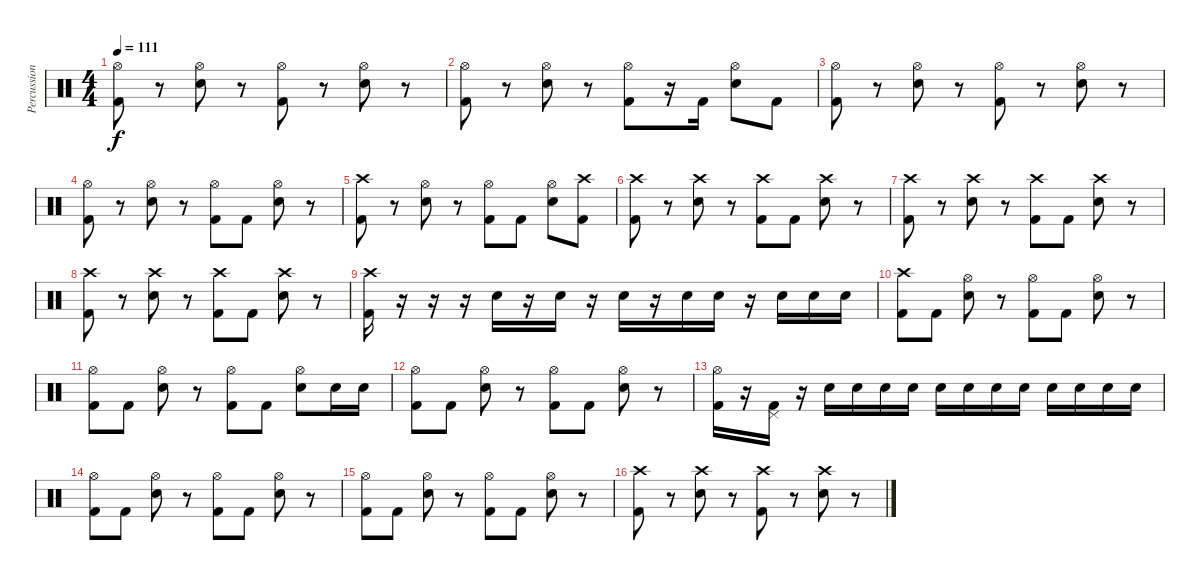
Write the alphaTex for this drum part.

\track ("Percussion" "Percussion") {instrument percussion}
\staff {score}
\articulation defaults
\ts (4 4)
\tempo 111
\clef neutral
\ks c
("Hi-Hat (open)" "Kick (hit) 2").8{dy f} r.8 ("Hi-Hat (open)" "Snare (hit) 2").8 r.8 ("Hi-Hat (open)" "Kick (hit) 2").8 r.8 ("Hi-Hat (open)" "Snare (hit) 2").8 r.8 |
("Hi-Hat (open)" "Kick (hit) 2").8 r.8 ("Hi-Hat (open)" "Snare (hit) 2").8 r.8 ("Hi-Hat (open)" "Kick (hit) 2").8 r.16 "Kick (hit) 2".16 ("Hi-Hat (open)" "Snare (hit) 2").8 "Kick (hit) 2".8 |
("Hi-Hat (open)" "Kick (hit) 2").8 r.8 ("Hi-Hat (open)" "Snare (hit) 2").8 r.8 ("Hi-Hat (open)" "Kick (hit) 2").8 r.8 ("Hi-Hat (open)" "Snare (hit) 2").8 r.8 |
("Hi-Hat (open)" "Kick (hit) 2").8 r.8 ("Hi-Hat (open)" "Snare (hit) 2").8 r.8 ("Hi-Hat (open)" "Kick (hit) 2").8 "Kick (hit) 2".8 ("Hi-Hat (open)" "Snare (hit) 2").8 r.8 |
("Crash high (hit)" "Kick (hit) 2").8 r.8 ("Hi-Hat (open)" "Snare (hit) 2").8 r.8 ("Hi-Hat (open)" "Kick (hit) 2").8 "Kick (hit) 2".8 ("Hi-Hat (open)" "Snare (hit) 2").8 ("Crash high (hit)" "Kick (hit) 2").8 |
("Crash high (hit)" "Kick (hit) 2").8 r.8 ("Crash high (hit)" "Snare (hit) 2").8 r.8 ("Crash high (hit)" "Kick (hit) 2").8 "Kick (hit) 2".8 ("Crash high (hit)" "Snare (hit) 2").8 r.8 |
("Crash high (hit)" "Kick (hit) 2").8 r.8 ("Crash high (hit)" "Snare (hit) 2").8 r.8 ("Crash high (hit)" "Kick (hit) 2").8 "Kick (hit) 2".8 ("Crash high (hit)" "Snare (hit) 2").8 r.8 |
("Crash high (hit)" "Kick (hit) 2").8 r.8 ("Crash high (hit)" "Snare (hit) 2").8 r.8 ("Crash high (hit)" "Kick (hit) 2").8 "Kick (hit) 2".8 ("Crash high (hit)" "Snare (hit) 2").8 r.8 |
("Crash high (hit)" "Kick (hit) 2").16 r.16 r.16 r.16 "Snare (hit) 2".16 r.16 "Snare (hit) 2".16 r.16 "Snare (hit) 2".16 r.16 "Snare (hit) 2".16 "Snare (hit) 2".16 r.16 "Snare (hit) 2".16 "Snare (hit) 2".16 "Snare (hit) 2".16 |
("Crash high (hit)" "Kick (hit) 2").8 "Kick (hit) 2".8 ("Hi-Hat (open)" "Snare (hit) 2").8 r.8 ("Hi-Hat (open)" "Kick (hit) 2").8 "Kick (hit) 2".8 ("Hi-Hat (open)" "Snare (hit) 2").8 r.8 |
("Hi-Hat (open)" "Kick (hit) 2").8 "Kick (hit) 2".8 ("Hi-Hat (open)" "Snare (hit) 2").8 r.8 ("Hi-Hat (open)" "Kick (hit) 2").8 "Kick (hit) 2".8 ("Hi-Hat (open)" "Snare (hit) 2").8 "Snare (hit) 2".16 "Snare (hit) 2".16 |
("Hi-Hat (open)" "Kick (hit) 2").8 "Kick (hit) 2".8 ("Hi-Hat (open)" "Snare (hit) 2").8 r.8 ("Hi-Hat (open)" "Kick (hit) 2").8 "Kick (hit) 2".8 ("Hi-Hat (open)" "Snare (hit) 2").8 r.8 |
("Hi-Hat (open)" "Kick (hit) 2").16 r.16 ("Pedal Hi-Hat (hit)" "Kick (hit) 2").16 r.16 "Snare (hit) 2".16 "Snare (hit) 2".16 "Snare (hit) 2".16 "Snare (hit) 2".16 "Snare (hit) 2".16 "Snare (hit) 2".16 "Snare (hit) 2".16 "Snare (hit) 2".16 "Snare (hit) 2".16 "Snare (hit) 2".16 "Snare (hit) 2".16 "Snare (hit) 2".16 |
("Hi-Hat (open)" "Kick (hit) 2").8 "Kick (hit) 2".8 ("Hi-Hat (open)" "Snare (hit) 2").8 r.8 ("Hi-Hat (open)" "Kick (hit) 2").8 "Kick (hit) 2".8 ("Hi-Hat (open)" "Snare (hit) 2").8 r.8 |
("Hi-Hat (open)" "Kick (hit) 2").8 "Kick (hit) 2".8 ("Hi-Hat (open)" "Snare (hit) 2").8 r.8 ("Hi-Hat (open)" "Kick (hit) 2").8 "Kick (hit) 2".8 ("Hi-Hat (open)" "Snare (hit) 2").8 r.8 |
("Crash high (hit)" "Kick (hit) 2").8 r.8 ("Crash high (hit)" "Snare (hit) 2").8 r.8 ("Crash high (hit)" "Kick (hit) 2").8 r.8 ("Crash high (hit)" "Snare (hit) 2").8 r.8
